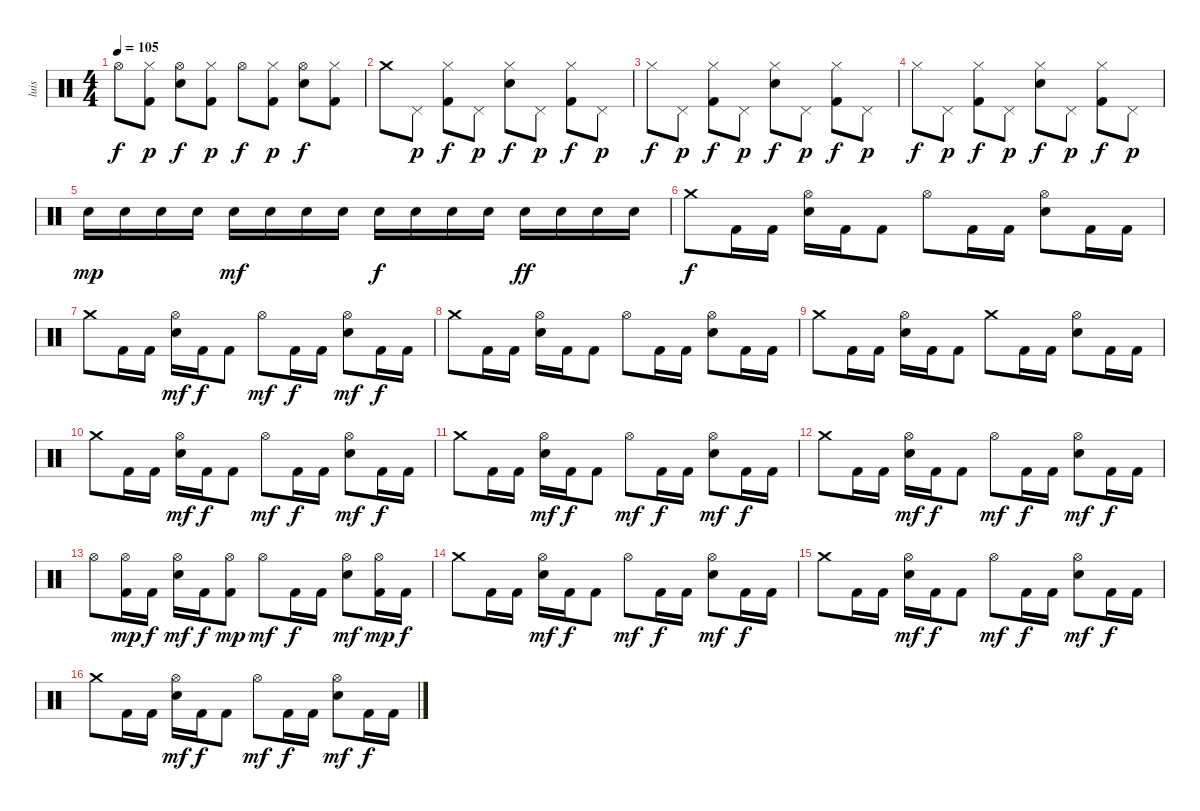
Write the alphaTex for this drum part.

\track ("luis" "luis") {instrument percussion}
\staff {score}
\articulation defaults
\ts (4 4)
\tempo 105
\clef neutral
\ks c "Hi-Hat (open)".8{dy f}
("Hi-Hat (closed)" "Kick (hit) 2").8{dy p} ("Electric Snare (hit)" "Hi-Hat (open)").8{dy f} ("Hi-Hat (closed)" "Kick (hit) 2").8{dy p} "Hi-Hat (open)".8{dy f} ("Hi-Hat (closed)" "Kick (hit) 2").8{dy p} ("Electric Snare (hit)" "Hi-Hat (open)").8{dy f} ("Hi-Hat (closed)" "Kick (hit) 2").8 |
"Crash medium (hit)".8 "Pedal Hi-Hat (hit)".8{dy p} ("Hi-Hat (closed)" "Kick (hit) 2").8{dy f} "Pedal Hi-Hat (hit)".8{dy p} ("Hi-Hat (closed)" "Electric Snare (hit)").8{dy f} "Pedal Hi-Hat (hit)".8{dy p} ("Hi-Hat (closed)" "Kick (hit) 2").8{dy f} "Pedal Hi-Hat (hit)".8{dy p} |
"Hi-Hat (closed)".8{dy f} "Pedal Hi-Hat (hit)".8{dy p} ("Hi-Hat (closed)" "Kick (hit) 2").8{dy f} "Pedal Hi-Hat (hit)".8{dy p} ("Hi-Hat (closed)" "Electric Snare (hit)").8{dy f} "Pedal Hi-Hat (hit)".8{dy p} ("Hi-Hat (closed)" "Kick (hit) 2").8{dy f} "Pedal Hi-Hat (hit)".8{dy p} |
"Hi-Hat (closed)".8{dy f} "Pedal Hi-Hat (hit)".8{dy p} ("Hi-Hat (closed)" "Kick (hit) 2").8{dy f} "Pedal Hi-Hat (hit)".8{dy p} ("Hi-Hat (closed)" "Electric Snare (hit)").8{dy f} "Pedal Hi-Hat (hit)".8{dy p} ("Hi-Hat (closed)" "Kick (hit) 2").8{dy f} "Pedal Hi-Hat (hit)".8{dy p} |
"Electric Snare (hit)".16{dy mp} "Electric Snare (hit)".16 "Electric Snare (hit)".16 "Electric Snare (hit)".16 "Electric Snare (hit)".16{dy mf} "Electric Snare (hit)".16 "Electric Snare (hit)".16 "Electric Snare (hit)".16 "Electric Snare (hit)".16{dy f} "Electric Snare (hit)".16 "Electric Snare (hit)".16 "Electric Snare (hit)".16 "Electric Snare (hit)".16{dy ff} "Electric Snare (hit)".16 "Electric Snare (hit)".16 "Electric Snare (hit)".16 |
"Crash medium (hit)".8{dy f} "Kick (hit) 2".16 "Kick (hit) 2".16 ("Hi-Hat (open)" "Electric Snare (hit)").16 "Kick (hit) 2".16 "Kick (hit) 2".8 "Hi-Hat (open)".8 "Kick (hit) 2".16 "Kick (hit) 2".16 ("Hi-Hat (open)" "Electric Snare (hit)").8 "Kick (hit) 2".16 "Kick (hit) 2".16 |
"Crash medium (hit)".8 "Kick (hit) 2".16 "Kick (hit) 2".16 ("Hi-Hat (open)" "Electric Snare (hit)").16{dy mf} "Kick (hit) 2".16{dy f} "Kick (hit) 2".8 "Hi-Hat (open)".8{dy mf} "Kick (hit) 2".16{dy f} "Kick (hit) 2".16 ("Hi-Hat (open)" "Electric Snare (hit)").8{dy mf} "Kick (hit) 2".16{dy f} "Kick (hit) 2".16 |
"Crash medium (hit)".8 "Kick (hit) 2".16 "Kick (hit) 2".16 ("Hi-Hat (open)" "Electric Snare (hit)").16 "Kick (hit) 2".16 "Kick (hit) 2".8 "Hi-Hat (open)".8 "Kick (hit) 2".16 "Kick (hit) 2".16 ("Hi-Hat (open)" "Electric Snare (hit)").8 "Kick (hit) 2".16 "Kick (hit) 2".16 |
"Crash medium (hit)".8 "Kick (hit) 2".16 "Kick (hit) 2".16 ("Hi-Hat (open)" "Electric Snare (hit)").16 "Kick (hit) 2".16 "Kick (hit) 2".8 "Crash medium (hit)".8 "Kick (hit) 2".16 "Kick (hit) 2".16 ("Hi-Hat (open)" "Electric Snare (hit)").8 "Kick (hit) 2".16 "Kick (hit) 2".16 |
"Crash medium (hit)".8 "Kick (hit) 2".16 "Kick (hit) 2".16 ("Hi-Hat (open)" "Electric Snare (hit)").16{dy mf} "Kick (hit) 2".16{dy f} "Kick (hit) 2".8 "Hi-Hat (open)".8{dy mf} "Kick (hit) 2".16{dy f} "Kick (hit) 2".16 ("Hi-Hat (open)" "Electric Snare (hit)").8{dy mf} "Kick (hit) 2".16{dy f} "Kick (hit) 2".16 |
"Crash medium (hit)".8 "Kick (hit) 2".16 "Kick (hit) 2".16 ("Hi-Hat (open)" "Electric Snare (hit)").16{dy mf} "Kick (hit) 2".16{dy f} "Kick (hit) 2".8 "Hi-Hat (open)".8{dy mf} "Kick (hit) 2".16{dy f} "Kick (hit) 2".16 ("Hi-Hat (open)" "Electric Snare (hit)").8{dy mf} "Kick (hit) 2".16{dy f} "Kick (hit) 2".16 |
"Crash medium (hit)".8 "Kick (hit) 2".16 "Kick (hit) 2".16 ("Hi-Hat (open)" "Electric Snare (hit)").16{dy mf} "Kick (hit) 2".16{dy f} "Kick (hit) 2".8 "Hi-Hat (open)".8{dy mf} "Kick (hit) 2".16{dy f} "Kick (hit) 2".16 ("Hi-Hat (open)" "Electric Snare (hit)").8{dy mf} "Kick (hit) 2".16{dy f} "Kick (hit) 2".16 |
"Hi-Hat (open)".8 ("Hi-Hat (open)" "Kick (hit) 2").16{dy mp} "Kick (hit) 2".16{dy f} ("Hi-Hat (open)" "Electric Snare (hit)").16{dy mf} "Kick (hit) 2".16{dy f} ("Hi-Hat (open)" "Kick (hit) 2").8{dy mp} "Hi-Hat (open)".8{dy mf} "Kick (hit) 2".16{dy f} "Kick (hit) 2".16 ("Hi-Hat (open)" "Electric Snare (hit)").8{dy mf} ("Hi-Hat (open)" "Kick (hit) 2").16{dy mp} "Kick (hit) 2".16{dy f} |
"Crash medium (hit)".8 "Kick (hit) 2".16 "Kick (hit) 2".16 ("Hi-Hat (open)" "Electric Snare (hit)").16{dy mf} "Kick (hit) 2".16{dy f} "Kick (hit) 2".8 "Hi-Hat (open)".8{dy mf} "Kick (hit) 2".16{dy f} "Kick (hit) 2".16 ("Hi-Hat (open)" "Electric Snare (hit)").8{dy mf} "Kick (hit) 2".16{dy f} "Kick (hit) 2".16 |
"Crash medium (hit)".8 "Kick (hit) 2".16 "Kick (hit) 2".16 ("Hi-Hat (open)" "Electric Snare (hit)").16{dy mf} "Kick (hit) 2".16{dy f} "Kick (hit) 2".8 "Hi-Hat (open)".8{dy mf} "Kick (hit) 2".16{dy f} "Kick (hit) 2".16 ("Hi-Hat (open)" "Electric Snare (hit)").8{dy mf} "Kick (hit) 2".16{dy f} "Kick (hit) 2".16 |
"Crash medium (hit)".8 "Kick (hit) 2".16 "Kick (hit) 2".16 ("Hi-Hat (open)" "Electric Snare (hit)").16{dy mf} "Kick (hit) 2".16{dy f} "Kick (hit) 2".8 "Hi-Hat (open)".8{dy mf} "Kick (hit) 2".16{dy f} "Kick (hit) 2".16 ("Hi-Hat (open)" "Electric Snare (hit)").8{dy mf} "Kick (hit) 2".16{dy f} "Kick (hit) 2".16
